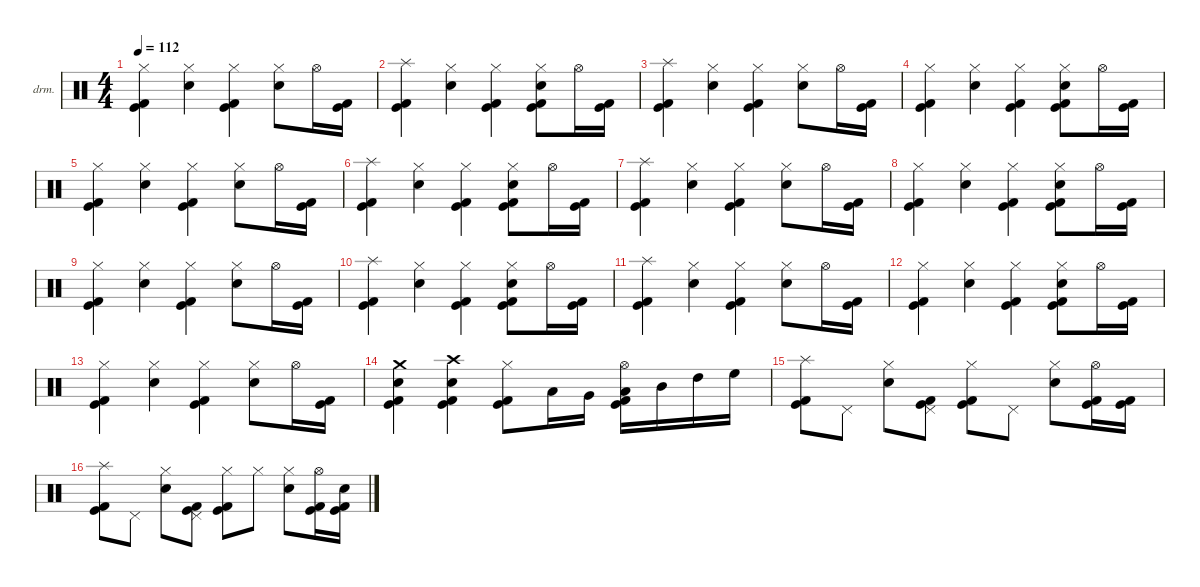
\defaultSystemsLayout 4
\hideDynamics
\bracketExtendMode nobrackets
\firstSystemTrackNameOrientation horizontal
\otherSystemsTrackNameOrientation horizontal
\track ("Drums" "drm.") {instrument percussion}
\staff {score}
\articulation defaults
\ts (4 4)
\tempo 112
\clef neutral
\ks c
("Hi-Hat (closed)" "Kick (hit) 2" "Kick (hit)").4{dy f} ("Hi-Hat (closed)" "Snare (hit) 2").4 ("Hi-Hat (closed)" "Kick (hit) 2" "Kick (hit)").4 ("Hi-Hat (closed)" "Snare (hit) 2").8 "Hi-Hat (open)".16 ("Kick (hit) 2" "Kick (hit)").16 |
("Splash (hit)" "Kick (hit) 2" "Kick (hit)").4 ("Hi-Hat (closed)" "Snare (hit) 2").4 ("Hi-Hat (closed)" "Kick (hit) 2" "Kick (hit)").4 ("Hi-Hat (closed)" "Snare (hit) 2" "Kick (hit) 2" "Kick (hit)").8 "Hi-Hat (open)".16 ("Kick (hit) 2" "Kick (hit)").16 |
("Splash (hit)" "Kick (hit) 2" "Kick (hit)").4 ("Hi-Hat (closed)" "Snare (hit) 2").4 ("Hi-Hat (closed)" "Kick (hit) 2" "Kick (hit)").4 ("Hi-Hat (closed)" "Snare (hit) 2").8 "Hi-Hat (open)".16 ("Kick (hit) 2" "Kick (hit)").16 |
("Hi-Hat (closed)" "Kick (hit) 2" "Kick (hit)").4 ("Hi-Hat (closed)" "Snare (hit) 2").4 ("Hi-Hat (closed)" "Kick (hit) 2" "Kick (hit)").4 ("Hi-Hat (closed)" "Snare (hit) 2" "Kick (hit) 2" "Kick (hit)").8 "Hi-Hat (open)".16 ("Kick (hit) 2" "Kick (hit)").16 |
("Hi-Hat (closed)" "Kick (hit) 2" "Kick (hit)").4 ("Hi-Hat (closed)" "Snare (hit) 2").4 ("Hi-Hat (closed)" "Kick (hit) 2" "Kick (hit)").4 ("Hi-Hat (closed)" "Snare (hit) 2").8 "Hi-Hat (open)".16 ("Kick (hit) 2" "Kick (hit)").16 |
("Splash (hit)" "Kick (hit) 2" "Kick (hit)").4 ("Hi-Hat (closed)" "Snare (hit) 2").4 ("Hi-Hat (closed)" "Kick (hit) 2" "Kick (hit)").4 ("Hi-Hat (closed)" "Snare (hit) 2" "Kick (hit) 2" "Kick (hit)").8 "Hi-Hat (open)".16 ("Kick (hit) 2" "Kick (hit)").16 |
("Splash (hit)" "Kick (hit) 2" "Kick (hit)").4 ("Hi-Hat (closed)" "Snare (hit) 2").4 ("Hi-Hat (closed)" "Kick (hit) 2" "Kick (hit)").4 ("Hi-Hat (closed)" "Snare (hit) 2").8 "Hi-Hat (open)".16 ("Kick (hit) 2" "Kick (hit)").16 |
("Hi-Hat (closed)" "Kick (hit) 2" "Kick (hit)").4 ("Hi-Hat (closed)" "Snare (hit) 2").4 ("Hi-Hat (closed)" "Kick (hit) 2" "Kick (hit)").4 ("Hi-Hat (closed)" "Snare (hit) 2" "Kick (hit) 2" "Kick (hit)").8 "Hi-Hat (open)".16 ("Kick (hit) 2" "Kick (hit)").16 |
("Hi-Hat (closed)" "Kick (hit) 2" "Kick (hit)").4 ("Hi-Hat (closed)" "Snare (hit) 2").4 ("Hi-Hat (closed)" "Kick (hit) 2" "Kick (hit)").4 ("Hi-Hat (closed)" "Snare (hit) 2").8 "Hi-Hat (open)".16 ("Kick (hit) 2" "Kick (hit)").16 |
("Splash (hit)" "Kick (hit) 2" "Kick (hit)").4 ("Hi-Hat (closed)" "Snare (hit) 2").4 ("Hi-Hat (closed)" "Kick (hit) 2" "Kick (hit)").4 ("Hi-Hat (closed)" "Snare (hit) 2" "Kick (hit) 2" "Kick (hit)").8 "Hi-Hat (open)".16 ("Kick (hit) 2" "Kick (hit)").16 |
("Splash (hit)" "Kick (hit) 2" "Kick (hit)").4 ("Hi-Hat (closed)" "Snare (hit) 2").4 ("Hi-Hat (closed)" "Kick (hit) 2" "Kick (hit)").4 ("Hi-Hat (closed)" "Snare (hit) 2").8 "Hi-Hat (open)".16 ("Kick (hit) 2" "Kick (hit)").16 |
("Hi-Hat (closed)" "Kick (hit) 2" "Kick (hit)").4 ("Hi-Hat (closed)" "Snare (hit) 2").4 ("Hi-Hat (closed)" "Kick (hit) 2" "Kick (hit)").4 ("Hi-Hat (closed)" "Snare (hit) 2" "Kick (hit) 2" "Kick (hit)").8 "Hi-Hat (open)".16 ("Kick (hit) 2" "Kick (hit)").16 |
("Hi-Hat (closed)" "Kick (hit) 2" "Kick (hit)").4 ("Hi-Hat (closed)" "Snare (hit) 2").4 ("Hi-Hat (closed)" "Kick (hit) 2" "Kick (hit)").4 ("Hi-Hat (closed)" "Snare (hit) 2").8 "Hi-Hat (open)".16 ("Kick (hit) 2" "Kick (hit)").16 |
("Crash medium (hit)" "Snare (hit) 2" "Kick (hit) 2" "Kick (hit)").4 ("Crash high (hit)" "Snare (hit) 2" "Kick (hit) 2" "Kick (hit)").4 ("Hi-Hat (closed)" "Kick (hit) 2" "Kick (hit)").8 "Low Tom (hit)".16 "Very Low Tom (hit)".16 ("Hi-Hat (open)" "Low Floor Tom (hit)" "Kick (hit) 2" "Kick (hit)").16 "Mid Tom (hit)".16 "High Tom (hit)".16 "High Floor Tom (hit)".16 |
("Splash (hit)" "Kick (hit) 2" "Kick (hit)").8 "Pedal Hi-Hat (hit)".8{dy ff} ("Hi-Hat (closed)" "Snare (hit) 2").8{dy f} ("Pedal Hi-Hat (hit)" "Kick (hit)" "Kick (hit) 2").8{dy ff} ("Hi-Hat (closed)" "Kick (hit)" "Kick (hit) 2").8{dy f} "Pedal Hi-Hat (hit)".8{dy ff} ("Hi-Hat (closed)" "Snare (hit) 2").8{dy f} ("Hi-Hat (open)" "Kick (hit) 2" "Kick (hit)").16 ("Kick (hit) 2" "Kick (hit)").16 |
("Splash (hit)" "Kick (hit) 2" "Kick (hit)").8 "Pedal Hi-Hat (hit)".8{dy ff} ("Hi-Hat (closed)" "Snare (hit) 2").8{dy f} ("Pedal Hi-Hat (hit)" "Kick (hit)" "Kick (hit) 2").8{dy ff} ("Hi-Hat (closed)" "Kick (hit)" "Kick (hit) 2").8{dy f} "Hi-Hat (closed)".8{dy ff} ("Hi-Hat (closed)" "Snare (hit) 2").8{dy f} ("Hi-Hat (open)" "Kick (hit) 2" "Kick (hit)").16 ("Snare (hit) 2" "Kick (hit) 2" "Kick (hit)").16
